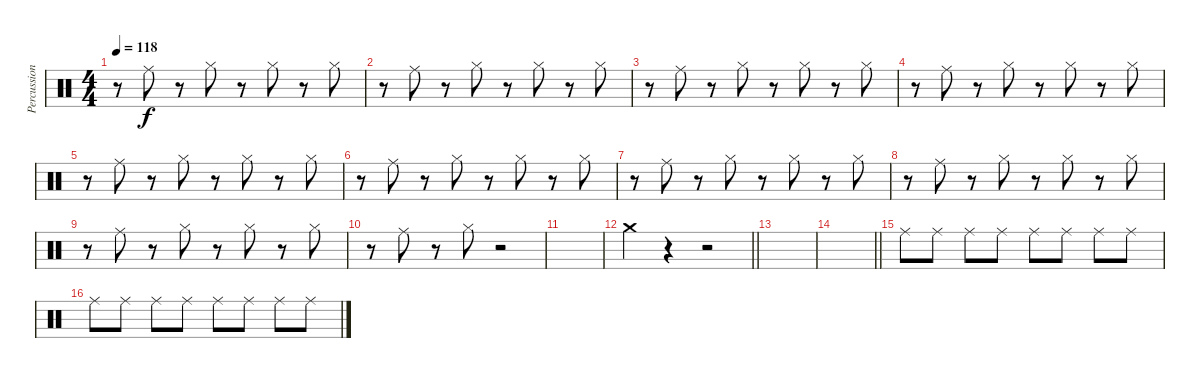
\track ("Percussion" "Percussion") {instrument percussion}
\staff {score}
\articulation defaults
\ts (4 4)
\tempo 118
\clef neutral
\ks c
r.8{dy f} "Ride (middle)".8 r.8 "Hi-Hat (closed)".8 r.8 "Hi-Hat (closed)".8 r.8 "Hi-Hat (closed)".8 |
r.8 "Ride (middle)".8 r.8 "Hi-Hat (closed)".8 r.8 "Hi-Hat (closed)".8 r.8 "Hi-Hat (closed)".8 |
r.8 "Ride (middle)".8 r.8 "Hi-Hat (closed)".8 r.8 "Hi-Hat (closed)".8 r.8 "Hi-Hat (closed)".8 |
r.8 "Ride (middle)".8 r.8 "Hi-Hat (closed)".8 r.8 "Hi-Hat (closed)".8 r.8 "Hi-Hat (closed)".8 |
r.8 "Ride (middle)".8 r.8 "Hi-Hat (closed)".8 r.8 "Hi-Hat (closed)".8 r.8 "Hi-Hat (closed)".8 |
r.8 "Ride (middle)".8 r.8 "Hi-Hat (closed)".8 r.8 "Hi-Hat (closed)".8 r.8 "Hi-Hat (closed)".8 |
r.8 "Ride (middle)".8 r.8 "Hi-Hat (closed)".8 r.8 "Hi-Hat (closed)".8 r.8 "Hi-Hat (closed)".8 |
r.8 "Ride (middle)".8 r.8 "Hi-Hat (closed)".8 r.8 "Hi-Hat (closed)".8 r.8 "Hi-Hat (closed)".8 |
r.8 "Ride (middle)".8 r.8 "Hi-Hat (closed)".8 r.8 "Hi-Hat (closed)".8 r.8 "Hi-Hat (closed)".8 |
r.8 "Ride (middle)".8 r.8 "Hi-Hat (closed)".8 r.2 |
|
\barLineRight lightlight "Crash medium (hit)".4
r.4 r.2 |
|
\barLineRight lightlight
|
"Ride (middle)".8 "Ride (middle)".8 "Ride (middle)".8 "Ride (middle)".8 "Ride (middle)".8 "Ride (middle)".8 "Ride (middle)".8 "Ride (middle)".8 |
"Ride (middle)".8 "Ride (middle)".8 "Ride (middle)".8 "Ride (middle)".8 "Ride (middle)".8 "Ride (middle)".8 "Ride (middle)".8 "Ride (middle)".8
